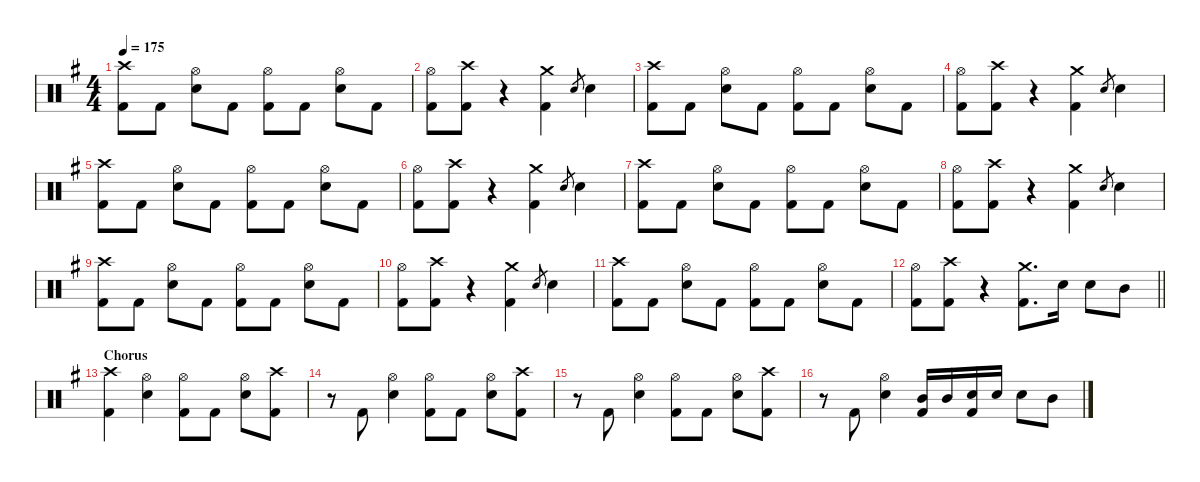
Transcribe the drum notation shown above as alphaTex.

\hideDynamics
\bracketExtendMode nobrackets
\singleTrackTrackNamePolicy hidden
\multiTrackTrackNamePolicy hidden
\firstSystemTrackNameMode fullname
\firstSystemTrackNameOrientation horizontal
\otherSystemsTrackNameOrientation horizontal
\track ("Drumkit" "Drums") {instrument percussion}
\staff {score}
\articulation defaults
\ts (4 4)
\tempo 175
\clef neutral
\ks g
("Crash high (hit)"{acc forcenatural} "Kick (hit) 2"{acc forcenatural}).8{dy f beam Down} "Kick (hit) 2"{acc forcenatural}.8{dy fff beam Down} ("Hi-Hat (open)"{acc forcenatural} "Snare (hit) 2"{acc forcenatural}).8{dy f beam Down} "Kick (hit) 2"{acc forcenatural}.8{dy fff beam Down} ("Hi-Hat (open)"{acc forcenatural} "Kick (hit) 2"{acc forcenatural}).8{dy f beam Down} "Kick (hit) 2"{acc forcenatural}.8{dy fff beam Down} ("Hi-Hat (open)"{acc forcenatural} "Snare (hit) 2"{acc forcenatural}).8{dy f beam Down} "Kick (hit) 2"{acc forcenatural}.8{dy fff beam Down} |
("Hi-Hat (open)"{acc forcenatural} "Kick (hit) 2"{acc forcenatural}).8{dy f beam Down} ("Crash high (hit)"{acc forcenatural} "Kick (hit) 2"{acc forcenatural}).8{beam Down} r.4{beam Down} ("Crash medium (hit)"{acc forcenatural} "Kick (hit) 2"{acc forcenatural}).4{beam Down} "Snare (hit) 2"{acc forcenatural}.8{gr dy mf beam Up} "Snare (hit) 2"{acc forcenatural}.4{dy f beam Down} |
("Crash high (hit)"{acc forcenatural} "Kick (hit) 2"{acc forcenatural}).8{beam Down} "Kick (hit) 2"{acc forcenatural}.8{dy fff beam Down} ("Hi-Hat (open)"{acc forcenatural} "Snare (hit) 2"{acc forcenatural}).8{dy f beam Down} "Kick (hit) 2"{acc forcenatural}.8{dy fff beam Down} ("Hi-Hat (open)"{acc forcenatural} "Kick (hit) 2"{acc forcenatural}).8{dy f beam Down} "Kick (hit) 2"{acc forcenatural}.8{dy fff beam Down} ("Hi-Hat (open)"{acc forcenatural} "Snare (hit) 2"{acc forcenatural}).8{dy f beam Down} "Kick (hit) 2"{acc forcenatural}.8{dy fff beam Down} |
("Hi-Hat (open)"{acc forcenatural} "Kick (hit) 2"{acc forcenatural}).8{dy f beam Down} ("Crash high (hit)"{acc forcenatural} "Kick (hit) 2"{acc forcenatural}).8{beam Down} r.4{beam Down} ("Crash medium (hit)"{acc forcenatural} "Kick (hit) 2"{acc forcenatural}).4{beam Down} "Snare (hit) 2"{acc forcenatural}.8{gr dy mf beam Up} "Snare (hit) 2"{acc forcenatural}.4{dy f beam Down} |
("Crash high (hit)"{acc forcenatural} "Kick (hit) 2"{acc forcenatural}).8{beam Down} "Kick (hit) 2"{acc forcenatural}.8{dy fff beam Down} ("Hi-Hat (open)"{acc forcenatural} "Snare (hit) 2"{acc forcenatural}).8{dy f beam Down} "Kick (hit) 2"{acc forcenatural}.8{dy fff beam Down} ("Hi-Hat (open)"{acc forcenatural} "Kick (hit) 2"{acc forcenatural}).8{dy f beam Down} "Kick (hit) 2"{acc forcenatural}.8{dy fff beam Down} ("Hi-Hat (open)"{acc forcenatural} "Snare (hit) 2"{acc forcenatural}).8{dy f beam Down} "Kick (hit) 2"{acc forcenatural}.8{dy fff beam Down} |
("Hi-Hat (open)"{acc forcenatural} "Kick (hit) 2"{acc forcenatural}).8{dy f beam Down} ("Crash high (hit)"{acc forcenatural} "Kick (hit) 2"{acc forcenatural}).8{beam Down} r.4{beam Down} ("Crash medium (hit)"{acc forcenatural} "Kick (hit) 2"{acc forcenatural}).4{beam Down} "Snare (hit) 2"{acc forcenatural}.8{gr dy mf beam Up} "Snare (hit) 2"{acc forcenatural}.4{dy f beam Down} |
("Crash high (hit)"{acc forcenatural} "Kick (hit) 2"{acc forcenatural}).8{beam Down} "Kick (hit) 2"{acc forcenatural}.8{dy fff beam Down} ("Hi-Hat (open)"{acc forcenatural} "Snare (hit) 2"{acc forcenatural}).8{dy f beam Down} "Kick (hit) 2"{acc forcenatural}.8{dy fff beam Down} ("Hi-Hat (open)"{acc forcenatural} "Kick (hit) 2"{acc forcenatural}).8{dy f beam Down} "Kick (hit) 2"{acc forcenatural}.8{dy fff beam Down} ("Hi-Hat (open)"{acc forcenatural} "Snare (hit) 2"{acc forcenatural}).8{dy f beam Down} "Kick (hit) 2"{acc forcenatural}.8{dy fff beam Down} |
("Hi-Hat (open)"{acc forcenatural} "Kick (hit) 2"{acc forcenatural}).8{dy f beam Down} ("Crash high (hit)"{acc forcenatural} "Kick (hit) 2"{acc forcenatural}).8{beam Down} r.4{beam Down} ("Crash medium (hit)"{acc forcenatural} "Kick (hit) 2"{acc forcenatural}).4{beam Down} "Snare (hit) 2"{acc forcenatural}.8{gr dy mf beam Up} "Snare (hit) 2"{acc forcenatural}.4{dy f beam Down} |
("Crash high (hit)"{acc forcenatural} "Kick (hit) 2"{acc forcenatural}).8{beam Down} "Kick (hit) 2"{acc forcenatural}.8{dy fff beam Down} ("Hi-Hat (open)"{acc forcenatural} "Snare (hit) 2"{acc forcenatural}).8{dy f beam Down} "Kick (hit) 2"{acc forcenatural}.8{dy fff beam Down} ("Hi-Hat (open)"{acc forcenatural} "Kick (hit) 2"{acc forcenatural}).8{dy f beam Down} "Kick (hit) 2"{acc forcenatural}.8{dy fff beam Down} ("Hi-Hat (open)"{acc forcenatural} "Snare (hit) 2"{acc forcenatural}).8{dy f beam Down} "Kick (hit) 2"{acc forcenatural}.8{dy fff beam Down} |
("Hi-Hat (open)"{acc forcenatural} "Kick (hit) 2"{acc forcenatural}).8{dy f beam Down} ("Crash high (hit)"{acc forcenatural} "Kick (hit) 2"{acc forcenatural}).8{beam Down} r.4{beam Down} ("Crash medium (hit)"{acc forcenatural} "Kick (hit) 2"{acc forcenatural}).4{beam Down} "Snare (hit) 2"{acc forcenatural}.8{gr dy mf beam Up} "Snare (hit) 2"{acc forcenatural}.4{dy f beam Down} |
("Crash high (hit)"{acc forcenatural} "Kick (hit) 2"{acc forcenatural}).8{beam Down} "Kick (hit) 2"{acc forcenatural}.8{dy fff beam Down} ("Hi-Hat (open)"{acc forcenatural} "Snare (hit) 2"{acc forcenatural}).8{dy f beam Down} "Kick (hit) 2"{acc forcenatural}.8{dy fff beam Down} ("Hi-Hat (open)"{acc forcenatural} "Kick (hit) 2"{acc forcenatural}).8{dy f beam Down} "Kick (hit) 2"{acc forcenatural}.8{dy fff beam Down} ("Hi-Hat (open)"{acc forcenatural} "Snare (hit) 2"{acc forcenatural}).8{dy f beam Down} "Kick (hit) 2"{acc forcenatural}.8{dy fff beam Down} |
\barLineRight lightlight
("Hi-Hat (open)"{acc forcenatural} "Kick (hit) 2"{acc forcenatural}).8{dy f beam Down} ("Crash high (hit)"{acc forcenatural} "Kick (hit) 2"{acc forcenatural}).8{beam Down} r.4{beam Down} ("Crash medium (hit)"{acc forcenatural} "Kick (hit) 2"{acc forcenatural}).8{d beam Down} "Snare (hit) 2"{acc forcenatural}.16{beam Down} "Snare (hit) 2"{acc forcenatural}.8{beam Down} "Mid Tom (hit)"{acc forcenatural}.8{beam Down} |
\section ("" "Chorus ")
("Crash high (hit)"{acc forcenatural} "Kick (hit) 2"{acc forcenatural}).4{beam Down} ("Hi-Hat (open)"{acc forcenatural} "Snare (hit) 2"{acc forcenatural}).4{beam Down} ("Hi-Hat (open)"{acc forcenatural} "Kick (hit) 2"{acc forcenatural}).8{beam Down} "Kick (hit) 2"{acc forcenatural}.8{dy fff beam Down} ("Hi-Hat (open)"{acc forcenatural} "Snare (hit) 2"{acc forcenatural}).8{dy f beam Down} ("Crash high (hit)"{acc forcenatural} "Kick (hit) 2"{acc forcenatural}).8{beam Down} |
r.8{beam Down} "Kick (hit) 2"{acc forcenatural}.8{dy fff beam Up} ("Hi-Hat (open)"{acc forcenatural} "Snare (hit) 2"{acc forcenatural}).4{dy f beam Down} ("Hi-Hat (open)"{acc forcenatural} "Kick (hit) 2"{acc forcenatural}).8{beam Down} "Kick (hit) 2"{acc forcenatural}.8{dy fff beam Down} ("Hi-Hat (open)"{acc forcenatural} "Snare (hit) 2"{acc forcenatural}).8{dy f beam Down} ("Crash high (hit)"{acc forcenatural} "Kick (hit) 2"{acc forcenatural}).8{beam Down} |
r.8{beam Down} "Kick (hit) 2"{acc forcenatural}.8{dy fff beam Up} ("Hi-Hat (open)"{acc forcenatural} "Snare (hit) 2"{acc forcenatural}).4{dy f beam Down} ("Hi-Hat (open)"{acc forcenatural} "Kick (hit) 2"{acc forcenatural}).8{beam Down} "Kick (hit) 2"{acc forcenatural}.8{dy fff beam Down} ("Hi-Hat (open)"{acc forcenatural} "Snare (hit) 2"{acc forcenatural}).8{dy f beam Down} ("Crash high (hit)"{acc forcenatural} "Kick (hit) 2"{acc forcenatural}).8{beam Down} |
r.8{beam Down} "Kick (hit) 2"{acc forcenatural}.8{dy fff beam Up} ("Hi-Hat (open)"{acc forcenatural} "Snare (hit) 2"{acc forcenatural}).4{dy f beam Down} ("Mid Tom (hit)"{acc forcenatural} "Kick (hit) 2"{acc forcenatural}).16{beam Up} "Mid Tom (hit)"{acc forcenatural}.16{beam Up} ("Snare (hit) 2"{acc forcenatural} "Kick (hit) 2"{acc forcenatural}).16{beam Up} "Snare (hit) 2"{acc forcenatural}.16{beam Up} "Snare (hit) 2"{acc forcenatural}.8{beam Down} "Mid Tom (hit)"{acc forcenatural}.8{beam Down}
